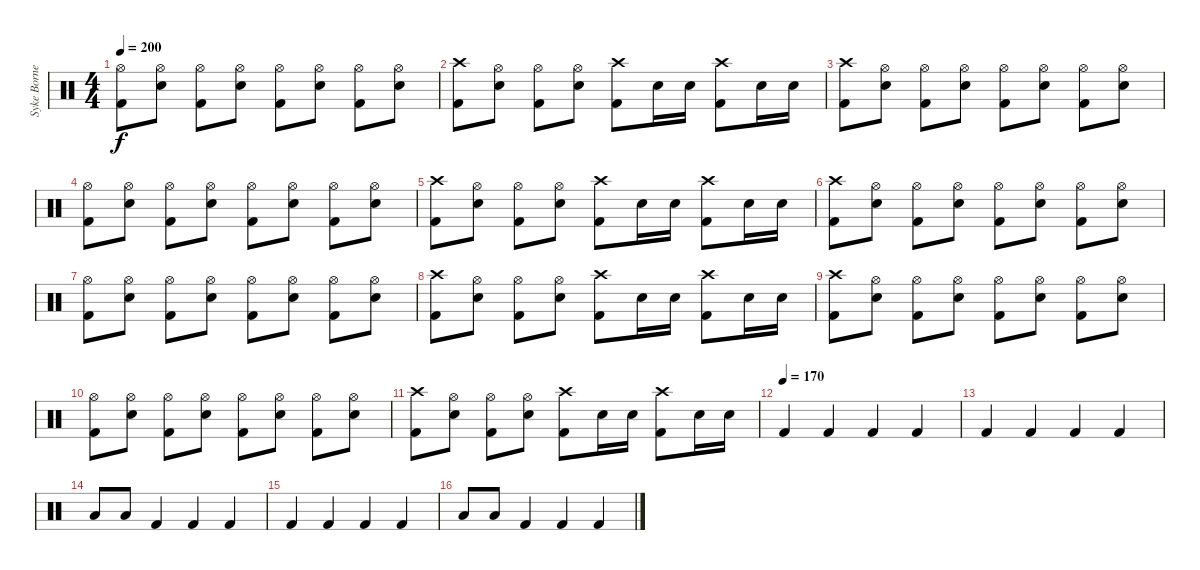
\track ("Syke Bornetto (Drums)" "Syke Borne") {instrument percussion}
\staff {score}
\articulation defaults
\ts (4 4)
\tempo 200
\clef neutral
\ks c
("Hi-Hat (open)" "Kick (hit) 2").8{dy f} ("Hi-Hat (open)" "Electric Snare (hit)").8 ("Hi-Hat (open)" "Kick (hit) 2").8 ("Hi-Hat (open)" "Electric Snare (hit)").8 ("Hi-Hat (open)" "Kick (hit) 2").8 ("Hi-Hat (open)" "Electric Snare (hit)").8 ("Hi-Hat (open)" "Kick (hit) 2").8 ("Hi-Hat (open)" "Electric Snare (hit)").8 |
("Crash high (hit)" "Kick (hit) 2").8 ("Hi-Hat (open)" "Electric Snare (hit)").8 ("Hi-Hat (open)" "Kick (hit) 2").8 ("Hi-Hat (open)" "Electric Snare (hit)").8 ("Crash high (hit)" "Kick (hit) 2").8 "Electric Snare (hit)".16 "Electric Snare (hit)".16 ("Crash high (hit)" "Kick (hit) 2").8 "Electric Snare (hit)".16 "Electric Snare (hit)".16 |
("Crash high (hit)" "Kick (hit) 2").8 ("Hi-Hat (open)" "Electric Snare (hit)").8 ("Hi-Hat (open)" "Kick (hit) 2").8 ("Hi-Hat (open)" "Electric Snare (hit)").8 ("Hi-Hat (open)" "Kick (hit) 2").8 ("Hi-Hat (open)" "Electric Snare (hit)").8 ("Hi-Hat (open)" "Kick (hit) 2").8 ("Hi-Hat (open)" "Electric Snare (hit)").8 |
("Hi-Hat (open)" "Kick (hit) 2").8 ("Hi-Hat (open)" "Electric Snare (hit)").8 ("Hi-Hat (open)" "Kick (hit) 2").8 ("Hi-Hat (open)" "Electric Snare (hit)").8 ("Hi-Hat (open)" "Kick (hit) 2").8 ("Hi-Hat (open)" "Electric Snare (hit)").8 ("Hi-Hat (open)" "Kick (hit) 2").8 ("Hi-Hat (open)" "Electric Snare (hit)").8 |
("Crash high (hit)" "Kick (hit) 2").8 ("Hi-Hat (open)" "Electric Snare (hit)").8 ("Hi-Hat (open)" "Kick (hit) 2").8 ("Hi-Hat (open)" "Electric Snare (hit)").8 ("Crash high (hit)" "Kick (hit) 2").8 "Electric Snare (hit)".16 "Electric Snare (hit)".16 ("Crash high (hit)" "Kick (hit) 2").8 "Electric Snare (hit)".16 "Electric Snare (hit)".16 |
("Crash high (hit)" "Kick (hit) 2").8 ("Hi-Hat (open)" "Electric Snare (hit)").8 ("Hi-Hat (open)" "Kick (hit) 2").8 ("Hi-Hat (open)" "Electric Snare (hit)").8 ("Hi-Hat (open)" "Kick (hit) 2").8 ("Hi-Hat (open)" "Electric Snare (hit)").8 ("Hi-Hat (open)" "Kick (hit) 2").8 ("Hi-Hat (open)" "Electric Snare (hit)").8 |
("Hi-Hat (open)" "Kick (hit) 2").8 ("Hi-Hat (open)" "Electric Snare (hit)").8 ("Hi-Hat (open)" "Kick (hit) 2").8 ("Hi-Hat (open)" "Electric Snare (hit)").8 ("Hi-Hat (open)" "Kick (hit) 2").8 ("Hi-Hat (open)" "Electric Snare (hit)").8 ("Hi-Hat (open)" "Kick (hit) 2").8 ("Hi-Hat (open)" "Electric Snare (hit)").8 |
("Crash high (hit)" "Kick (hit) 2").8 ("Hi-Hat (open)" "Electric Snare (hit)").8 ("Hi-Hat (open)" "Kick (hit) 2").8 ("Hi-Hat (open)" "Electric Snare (hit)").8 ("Crash high (hit)" "Kick (hit) 2").8 "Electric Snare (hit)".16 "Electric Snare (hit)".16 ("Crash high (hit)" "Kick (hit) 2").8 "Electric Snare (hit)".16 "Electric Snare (hit)".16 |
("Crash high (hit)" "Kick (hit) 2").8 ("Hi-Hat (open)" "Electric Snare (hit)").8 ("Hi-Hat (open)" "Kick (hit) 2").8 ("Hi-Hat (open)" "Electric Snare (hit)").8 ("Hi-Hat (open)" "Kick (hit) 2").8 ("Hi-Hat (open)" "Electric Snare (hit)").8 ("Hi-Hat (open)" "Kick (hit) 2").8 ("Hi-Hat (open)" "Electric Snare (hit)").8 |
("Hi-Hat (open)" "Kick (hit) 2").8 ("Hi-Hat (open)" "Electric Snare (hit)").8 ("Hi-Hat (open)" "Kick (hit) 2").8 ("Hi-Hat (open)" "Electric Snare (hit)").8 ("Hi-Hat (open)" "Kick (hit) 2").8 ("Hi-Hat (open)" "Electric Snare (hit)").8 ("Hi-Hat (open)" "Kick (hit) 2").8 ("Hi-Hat (open)" "Electric Snare (hit)").8 |
("Crash high (hit)" "Kick (hit) 2").8 ("Hi-Hat (open)" "Electric Snare (hit)").8 ("Hi-Hat (open)" "Kick (hit) 2").8 ("Hi-Hat (open)" "Electric Snare (hit)").8 ("Crash high (hit)" "Kick (hit) 2").8 "Electric Snare (hit)".16 "Electric Snare (hit)".16 ("Crash high (hit)" "Kick (hit) 2").8 "Electric Snare (hit)".16 "Electric Snare (hit)".16 |
\tempo (170)
"Kick (hit) 2".4 "Kick (hit) 2".4 "Kick (hit) 2".4 "Kick (hit) 2".4 |
"Kick (hit) 2".4 "Kick (hit) 2".4 "Kick (hit) 2".4 "Kick (hit) 2".4 |
"Low Tom (hit)".8 "Low Tom (hit)".8 "Kick (hit) 2".4 "Kick (hit) 2".4 "Kick (hit) 2".4 |
"Kick (hit) 2".4 "Kick (hit) 2".4 "Kick (hit) 2".4 "Kick (hit) 2".4 |
"Low Tom (hit)".8 "Low Tom (hit)".8 "Kick (hit) 2".4 "Kick (hit) 2".4 "Kick (hit) 2".4
